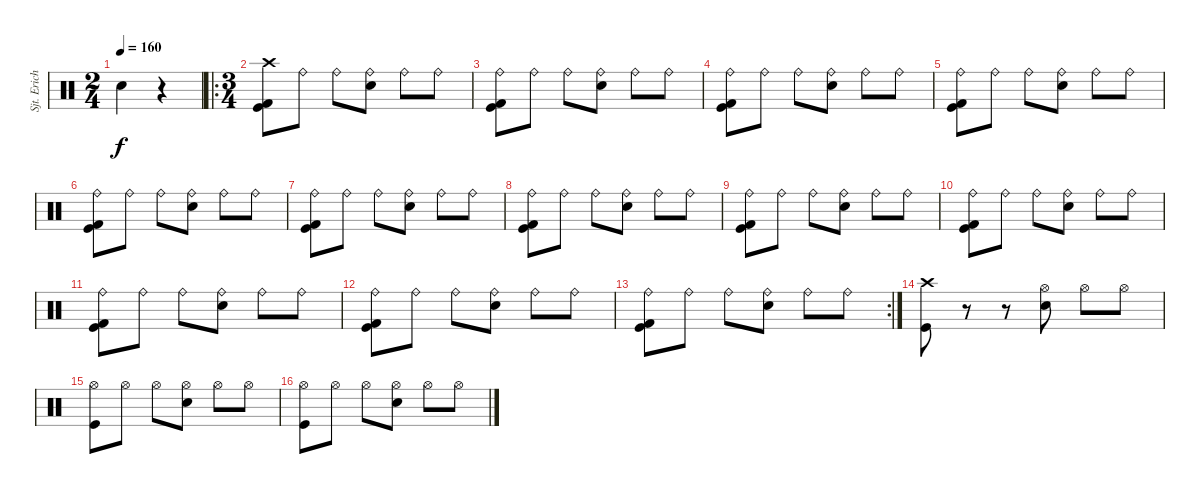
\track ("Sjt. Erichsen" "Sjt. Erich") {instrument percussion}
\staff {score}
\articulation defaults
\ts (2 4)
\tempo 160
\clef neutral
\ks c "Electric Snare (hit)".4{dy f}
r.4 |
\ro
\ts (3 4)
("Crash high (hit)" "Kick (hit) 2" "Kick (hit)").8 "Ride (bell)".8 "Ride (bell)".8 ("Ride (bell)" "Electric Snare (hit)").8 "Ride (bell)".8 "Ride (bell)".8 |
("Ride (bell)" "Kick (hit) 2" "Kick (hit)").8 "Ride (bell)".8 "Ride (bell)".8 ("Ride (bell)" "Electric Snare (hit)").8 "Ride (bell)".8 "Ride (bell)".8 |
("Ride (bell)" "Kick (hit) 2" "Kick (hit)").8 "Ride (bell)".8 "Ride (bell)".8 ("Ride (bell)" "Electric Snare (hit)").8 "Ride (bell)".8 "Ride (bell)".8 |
("Ride (bell)" "Kick (hit) 2" "Kick (hit)").8 "Ride (bell)".8 "Ride (bell)".8 ("Ride (bell)" "Electric Snare (hit)").8 "Ride (bell)".8 "Ride (bell)".8 |
("Ride (bell)" "Kick (hit) 2" "Kick (hit)").8 "Ride (bell)".8 "Ride (bell)".8 ("Ride (bell)" "Electric Snare (hit)").8 "Ride (bell)".8 "Ride (bell)".8 |
("Ride (bell)" "Kick (hit) 2" "Kick (hit)").8 "Ride (bell)".8 "Ride (bell)".8 ("Ride (bell)" "Electric Snare (hit)").8 "Ride (bell)".8 "Ride (bell)".8 |
("Ride (bell)" "Kick (hit) 2" "Kick (hit)").8 "Ride (bell)".8 "Ride (bell)".8 ("Ride (bell)" "Electric Snare (hit)").8 "Ride (bell)".8 "Ride (bell)".8 |
("Ride (bell)" "Kick (hit) 2" "Kick (hit)").8 "Ride (bell)".8 "Ride (bell)".8 ("Ride (bell)" "Electric Snare (hit)").8 "Ride (bell)".8 "Ride (bell)".8 |
("Ride (bell)" "Kick (hit) 2" "Kick (hit)").8 "Ride (bell)".8 "Ride (bell)".8 ("Ride (bell)" "Electric Snare (hit)").8 "Ride (bell)".8 "Ride (bell)".8 |
("Ride (bell)" "Kick (hit) 2" "Kick (hit)").8 "Ride (bell)".8 "Ride (bell)".8 ("Ride (bell)" "Electric Snare (hit)").8 "Ride (bell)".8 "Ride (bell)".8 |
("Ride (bell)" "Kick (hit) 2" "Kick (hit)").8 "Ride (bell)".8 "Ride (bell)".8 ("Ride (bell)" "Electric Snare (hit)").8 "Ride (bell)".8 "Ride (bell)".8 |
\rc 2
("Ride (bell)" "Kick (hit) 2" "Kick (hit)").8 "Ride (bell)".8 "Ride (bell)".8 ("Ride (bell)" "Electric Snare (hit)").8 "Ride (bell)".8 "Ride (bell)".8 |
("Crash high (hit)" "Kick (hit)").8 r.8 r.8 ("Hi-Hat (open)" "Electric Snare (hit)").8 "Hi-Hat (open)".8 "Hi-Hat (open)".8 |
("Hi-Hat (open)" "Kick (hit)").8 "Hi-Hat (open)".8 "Hi-Hat (open)".8 ("Hi-Hat (open)" "Electric Snare (hit)").8 "Hi-Hat (open)".8 "Hi-Hat (open)".8 |
("Hi-Hat (open)" "Kick (hit)").8 "Hi-Hat (open)".8 "Hi-Hat (open)".8 ("Hi-Hat (open)" "Electric Snare (hit)").8 "Hi-Hat (open)".8 "Hi-Hat (open)".8
